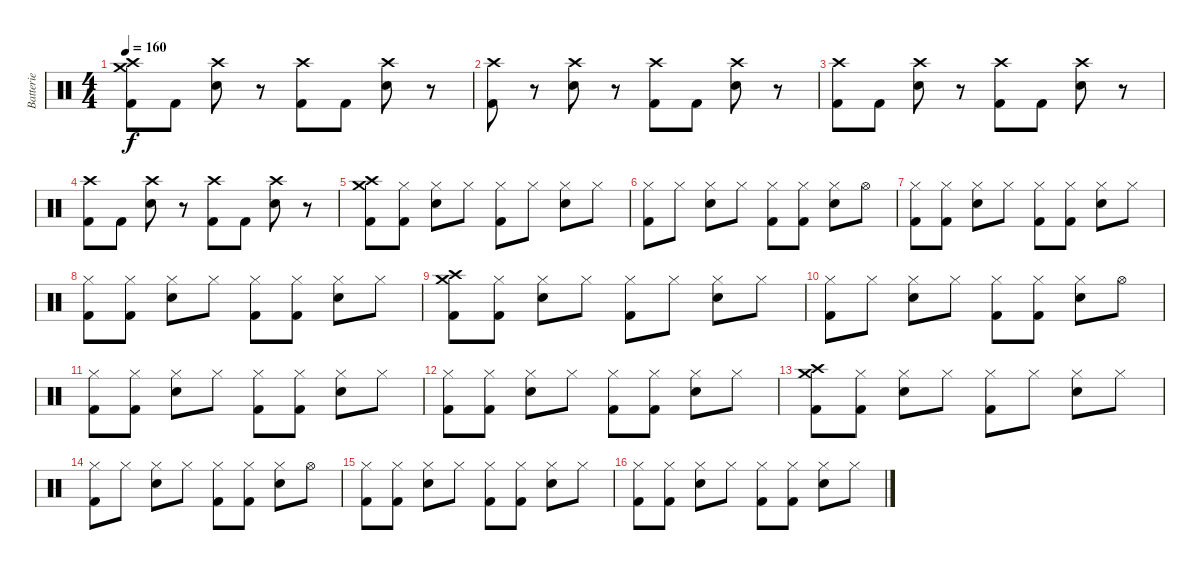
\track ("Batterie" "Batterie") {instrument percussion}
\staff {score}
\articulation defaults
\ts (4 4)
\tempo 160
\clef neutral
\ks c
("Crash high (hit)" "Crash medium (hit)" "Kick (hit) 2").8{dy f} "Kick (hit) 2".8 ("Crash high (hit)" "Snare (hit) 2").8 r.8 ("Crash high (hit)" "Kick (hit) 2").8 "Kick (hit) 2".8 ("Crash high (hit)" "Snare (hit) 2").8 r.8 |
("Crash high (hit)" "Kick (hit) 2").8 r.8 ("Crash high (hit)" "Snare (hit) 2").8 r.8 ("Crash high (hit)" "Kick (hit) 2").8 "Kick (hit) 2".8 ("Crash high (hit)" "Snare (hit) 2").8 r.8 |
("Crash high (hit)" "Kick (hit) 2").8 "Kick (hit) 2".8 ("Crash high (hit)" "Snare (hit) 2").8 r.8 ("Crash high (hit)" "Kick (hit) 2").8 "Kick (hit) 2".8 ("Crash high (hit)" "Snare (hit) 2").8 r.8 |
("Crash high (hit)" "Kick (hit) 2").8 "Kick (hit) 2".8 ("Crash high (hit)" "Snare (hit) 2").8 r.8 ("Crash high (hit)" "Kick (hit) 2").8 "Kick (hit) 2".8 ("Crash high (hit)" "Snare (hit) 2").8 r.8 |
("Crash high (hit)" "Crash medium (hit)" "Kick (hit) 2").8 ("Hi-Hat (closed)" "Kick (hit) 2").8 ("Hi-Hat (closed)" "Snare (hit) 2").8 "Hi-Hat (closed)".8 ("Hi-Hat (closed)" "Kick (hit) 2").8 "Hi-Hat (closed)".8 ("Hi-Hat (closed)" "Snare (hit) 2").8 "Hi-Hat (closed)".8 |
("Hi-Hat (closed)" "Kick (hit) 2").8 "Hi-Hat (closed)".8 ("Hi-Hat (closed)" "Snare (hit) 2").8 "Hi-Hat (closed)".8 ("Hi-Hat (closed)" "Kick (hit) 2").8 ("Hi-Hat (closed)" "Kick (hit) 2").8 ("Hi-Hat (closed)" "Snare (hit) 2").8 "Hi-Hat (open)".8 |
("Hi-Hat (closed)" "Kick (hit) 2").8 ("Hi-Hat (closed)" "Kick (hit) 2").8 ("Hi-Hat (closed)" "Snare (hit) 2").8 "Hi-Hat (closed)".8 ("Hi-Hat (closed)" "Kick (hit) 2").8 ("Hi-Hat (closed)" "Kick (hit) 2").8 ("Hi-Hat (closed)" "Snare (hit) 2").8 "Hi-Hat (closed)".8 |
("Hi-Hat (closed)" "Kick (hit) 2").8 ("Hi-Hat (closed)" "Kick (hit) 2").8 ("Hi-Hat (closed)" "Snare (hit) 2").8 "Hi-Hat (closed)".8 ("Hi-Hat (closed)" "Kick (hit) 2").8 ("Hi-Hat (closed)" "Kick (hit) 2").8 ("Hi-Hat (closed)" "Snare (hit) 2").8 "Hi-Hat (closed)".8 |
("Crash high (hit)" "Crash medium (hit)" "Kick (hit) 2").8 ("Hi-Hat (closed)" "Kick (hit) 2").8 ("Hi-Hat (closed)" "Snare (hit) 2").8 "Hi-Hat (closed)".8 ("Hi-Hat (closed)" "Kick (hit) 2").8 "Hi-Hat (closed)".8 ("Hi-Hat (closed)" "Snare (hit) 2").8 "Hi-Hat (closed)".8 |
("Hi-Hat (closed)" "Kick (hit) 2").8 "Hi-Hat (closed)".8 ("Hi-Hat (closed)" "Snare (hit) 2").8 "Hi-Hat (closed)".8 ("Hi-Hat (closed)" "Kick (hit) 2").8 ("Hi-Hat (closed)" "Kick (hit) 2").8 ("Hi-Hat (closed)" "Snare (hit) 2").8 "Hi-Hat (open)".8 |
("Hi-Hat (closed)" "Kick (hit) 2").8 ("Hi-Hat (closed)" "Kick (hit) 2").8 ("Hi-Hat (closed)" "Snare (hit) 2").8 "Hi-Hat (closed)".8 ("Hi-Hat (closed)" "Kick (hit) 2").8 ("Hi-Hat (closed)" "Kick (hit) 2").8 ("Hi-Hat (closed)" "Snare (hit) 2").8 "Hi-Hat (closed)".8 |
("Hi-Hat (closed)" "Kick (hit) 2").8 ("Hi-Hat (closed)" "Kick (hit) 2").8 ("Hi-Hat (closed)" "Snare (hit) 2").8 "Hi-Hat (closed)".8 ("Hi-Hat (closed)" "Kick (hit) 2").8 ("Hi-Hat (closed)" "Kick (hit) 2").8 ("Hi-Hat (closed)" "Snare (hit) 2").8 "Hi-Hat (closed)".8 |
("Crash high (hit)" "Crash medium (hit)" "Kick (hit) 2").8 ("Hi-Hat (closed)" "Kick (hit) 2").8 ("Hi-Hat (closed)" "Snare (hit) 2").8 "Hi-Hat (closed)".8 ("Hi-Hat (closed)" "Kick (hit) 2").8 "Hi-Hat (closed)".8 ("Hi-Hat (closed)" "Snare (hit) 2").8 "Hi-Hat (closed)".8 |
("Hi-Hat (closed)" "Kick (hit) 2").8 "Hi-Hat (closed)".8 ("Hi-Hat (closed)" "Snare (hit) 2").8 "Hi-Hat (closed)".8 ("Hi-Hat (closed)" "Kick (hit) 2").8 ("Hi-Hat (closed)" "Kick (hit) 2").8 ("Hi-Hat (closed)" "Snare (hit) 2").8 "Hi-Hat (open)".8 |
("Hi-Hat (closed)" "Kick (hit) 2").8 ("Hi-Hat (closed)" "Kick (hit) 2").8 ("Hi-Hat (closed)" "Snare (hit) 2").8 "Hi-Hat (closed)".8 ("Hi-Hat (closed)" "Kick (hit) 2").8 ("Hi-Hat (closed)" "Kick (hit) 2").8 ("Hi-Hat (closed)" "Snare (hit) 2").8 "Hi-Hat (closed)".8 |
("Hi-Hat (closed)" "Kick (hit) 2").8 ("Hi-Hat (closed)" "Kick (hit) 2").8 ("Hi-Hat (closed)" "Snare (hit) 2").8 "Hi-Hat (closed)".8 ("Hi-Hat (closed)" "Kick (hit) 2").8 ("Hi-Hat (closed)" "Kick (hit) 2").8 ("Hi-Hat (closed)" "Snare (hit) 2").8 "Hi-Hat (closed)".8
